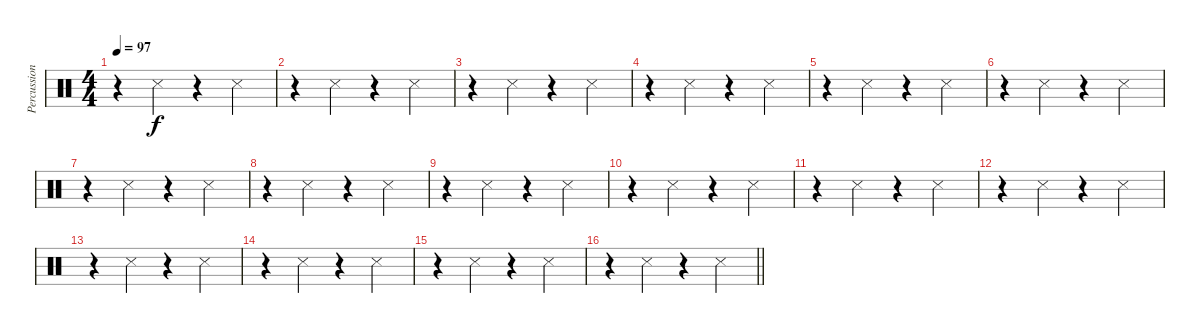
\track ("Percussions" "Percussion") {instrument percussion}
\staff {score}
\articulation defaults
\ts (4 4)
\tempo 97
\clef neutral
\ks c
r.4{dy f} "Metronome (hit)".4 r.4 "Metronome (hit)".4 |
r.4 "Metronome (hit)".4 r.4 "Metronome (hit)".4 |
r.4 "Metronome (hit)".4 r.4 "Metronome (hit)".4 |
r.4 "Metronome (hit)".4 r.4 "Metronome (hit)".4 |
r.4 "Metronome (hit)".4 r.4 "Metronome (hit)".4 |
r.4 "Metronome (hit)".4 r.4 "Metronome (hit)".4 |
r.4 "Metronome (hit)".4 r.4 "Metronome (hit)".4 |
r.4 "Metronome (hit)".4 r.4 "Metronome (hit)".4 |
r.4 "Metronome (hit)".4 r.4 "Metronome (hit)".4 |
r.4 "Metronome (hit)".4 r.4 "Metronome (hit)".4 |
r.4 "Metronome (hit)".4 r.4 "Metronome (hit)".4 |
r.4 "Metronome (hit)".4 r.4 "Metronome (hit)".4 |
r.4 "Metronome (hit)".4 r.4 "Metronome (hit)".4 |
r.4 "Metronome (hit)".4 r.4 "Metronome (hit)".4 |
r.4 "Metronome (hit)".4 r.4 "Metronome (hit)".4 |
\barLineRight lightlight
r.4 "Metronome (hit)".4 r.4 "Metronome (hit)".4
